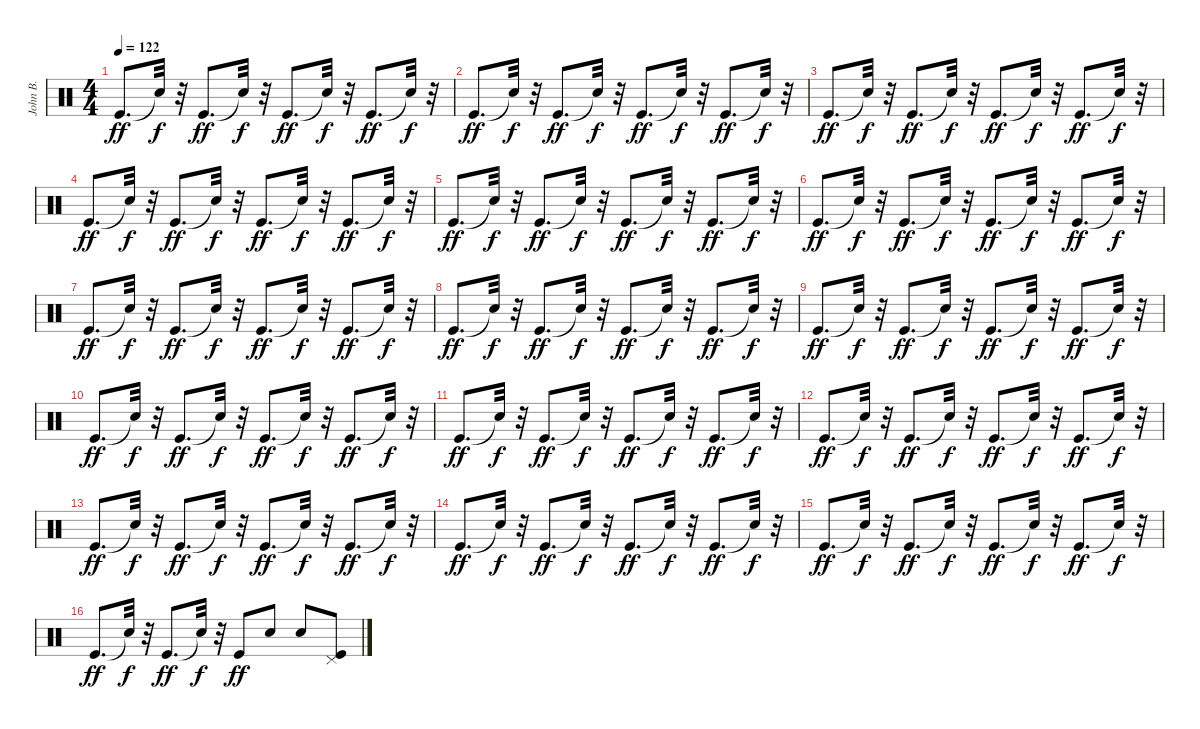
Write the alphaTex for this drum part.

\track ("John B." "John B.") {instrument percussion}
\staff {score}
\articulation defaults
\ts (4 4)
\tempo 122
\clef neutral
\ks c "Kick (hit)".8{d dy ff} "Snare (hit)"{t}.32{dy f}
r.32 "Kick (hit)".8{d dy ff} "Snare (hit)"{t}.32{dy f} r.32 "Kick (hit)".8{d dy ff} "Snare (hit)"{t}.32{dy f} r.32 "Kick (hit)".8{d dy ff} "Snare (hit)"{t}.32{dy f} r.32 |
"Kick (hit)".8{d dy ff} "Snare (hit)"{t}.32{dy f} r.32 "Kick (hit)".8{d dy ff} "Snare (hit)"{t}.32{dy f} r.32 "Kick (hit)".8{d dy ff} "Snare (hit)"{t}.32{dy f} r.32 "Kick (hit)".8{d dy ff} "Snare (hit)"{t}.32{dy f} r.32 |
"Kick (hit)".8{d dy ff} "Snare (hit)"{t}.32{dy f} r.32 "Kick (hit)".8{d dy ff} "Snare (hit)"{t}.32{dy f} r.32 "Kick (hit)".8{d dy ff} "Snare (hit)"{t}.32{dy f} r.32 "Kick (hit)".8{d dy ff} "Snare (hit)"{t}.32{dy f} r.32 |
"Kick (hit)".8{d dy ff} "Snare (hit)"{t}.32{dy f} r.32 "Kick (hit)".8{d dy ff} "Snare (hit)"{t}.32{dy f} r.32 "Kick (hit)".8{d dy ff} "Snare (hit)"{t}.32{dy f} r.32 "Kick (hit)".8{d dy ff} "Snare (hit)"{t}.32{dy f} r.32 |
"Kick (hit)".8{d dy ff} "Snare (hit)"{t}.32{dy f} r.32 "Kick (hit)".8{d dy ff} "Snare (hit)"{t}.32{dy f} r.32 "Kick (hit)".8{d dy ff} "Snare (hit)"{t}.32{dy f} r.32 "Kick (hit)".8{d dy ff} "Snare (hit)"{t}.32{dy f} r.32 |
"Kick (hit)".8{d dy ff} "Snare (hit)"{t}.32{dy f} r.32 "Kick (hit)".8{d dy ff} "Snare (hit)"{t}.32{dy f} r.32 "Kick (hit)".8{d dy ff} "Snare (hit)"{t}.32{dy f} r.32 "Kick (hit)".8{d dy ff} "Snare (hit)"{t}.32{dy f} r.32 |
"Kick (hit)".8{d dy ff} "Snare (hit)"{t}.32{dy f} r.32 "Kick (hit)".8{d dy ff} "Snare (hit)"{t}.32{dy f} r.32 "Kick (hit)".8{d dy ff} "Snare (hit)"{t}.32{dy f} r.32 "Kick (hit)".8{d dy ff} "Snare (hit)"{t}.32{dy f} r.32 |
"Kick (hit)".8{d dy ff} "Snare (hit)"{t}.32{dy f} r.32 "Kick (hit)".8{d dy ff} "Snare (hit)"{t}.32{dy f} r.32 "Kick (hit)".8{d dy ff} "Snare (hit)"{t}.32{dy f} r.32 "Kick (hit)".8{d dy ff} "Snare (hit)"{t}.32{dy f} r.32 |
"Kick (hit)".8{d dy ff} "Snare (hit)"{t}.32{dy f} r.32 "Kick (hit)".8{d dy ff} "Snare (hit)"{t}.32{dy f} r.32 "Kick (hit)".8{d dy ff} "Snare (hit)"{t}.32{dy f} r.32 "Kick (hit)".8{d dy ff} "Snare (hit)"{t}.32{dy f} r.32 |
"Kick (hit)".8{d dy ff} "Snare (hit)"{t}.32{dy f} r.32 "Kick (hit)".8{d dy ff} "Snare (hit)"{t}.32{dy f} r.32 "Kick (hit)".8{d dy ff} "Snare (hit)"{t}.32{dy f} r.32 "Kick (hit)".8{d dy ff} "Snare (hit)"{t}.32{dy f} r.32 |
"Kick (hit)".8{d dy ff} "Snare (hit)"{t}.32{dy f} r.32 "Kick (hit)".8{d dy ff} "Snare (hit)"{t}.32{dy f} r.32 "Kick (hit)".8{d dy ff} "Snare (hit)"{t}.32{dy f} r.32 "Kick (hit)".8{d dy ff} "Snare (hit)"{t}.32{dy f} r.32 |
"Kick (hit)".8{d dy ff} "Snare (hit)"{t}.32{dy f} r.32 "Kick (hit)".8{d dy ff} "Snare (hit)"{t}.32{dy f} r.32 "Kick (hit)".8{d dy ff} "Snare (hit)"{t}.32{dy f} r.32 "Kick (hit)".8{d dy ff} "Snare (hit)"{t}.32{dy f} r.32 |
"Kick (hit)".8{d dy ff} "Snare (hit)"{t}.32{dy f} r.32 "Kick (hit)".8{d dy ff} "Snare (hit)"{t}.32{dy f} r.32 "Kick (hit)".8{d dy ff} "Snare (hit)"{t}.32{dy f} r.32 "Kick (hit)".8{d dy ff} "Snare (hit)"{t}.32{dy f} r.32 |
"Kick (hit)".8{d dy ff} "Snare (hit)"{t}.32{dy f} r.32 "Kick (hit)".8{d dy ff} "Snare (hit)"{t}.32{dy f} r.32 "Kick (hit)".8{d dy ff} "Snare (hit)"{t}.32{dy f} r.32 "Kick (hit)".8{d dy ff} "Snare (hit)"{t}.32{dy f} r.32 |
"Kick (hit)".8{d dy ff} "Snare (hit)"{t}.32{dy f} r.32 "Kick (hit)".8{d dy ff} "Snare (hit)"{t}.32{dy f} r.32 "Kick (hit)".8{d dy ff} "Snare (hit)"{t}.32{dy f} r.32 "Kick (hit)".8{d dy ff} "Snare (hit)"{t}.32{dy f} r.32 |
"Kick (hit)".8{d dy ff} "Snare (hit)"{t}.32{dy f} r.32 "Kick (hit)".8{d dy ff} "Snare (hit)"{t}.32{dy f} r.32 "Kick (hit)".8{dy ff} "Snare (hit) 2".8 "Snare (hit) 2".8 ("Kick (hit)" "Pedal Hi-Hat (hit)").8
